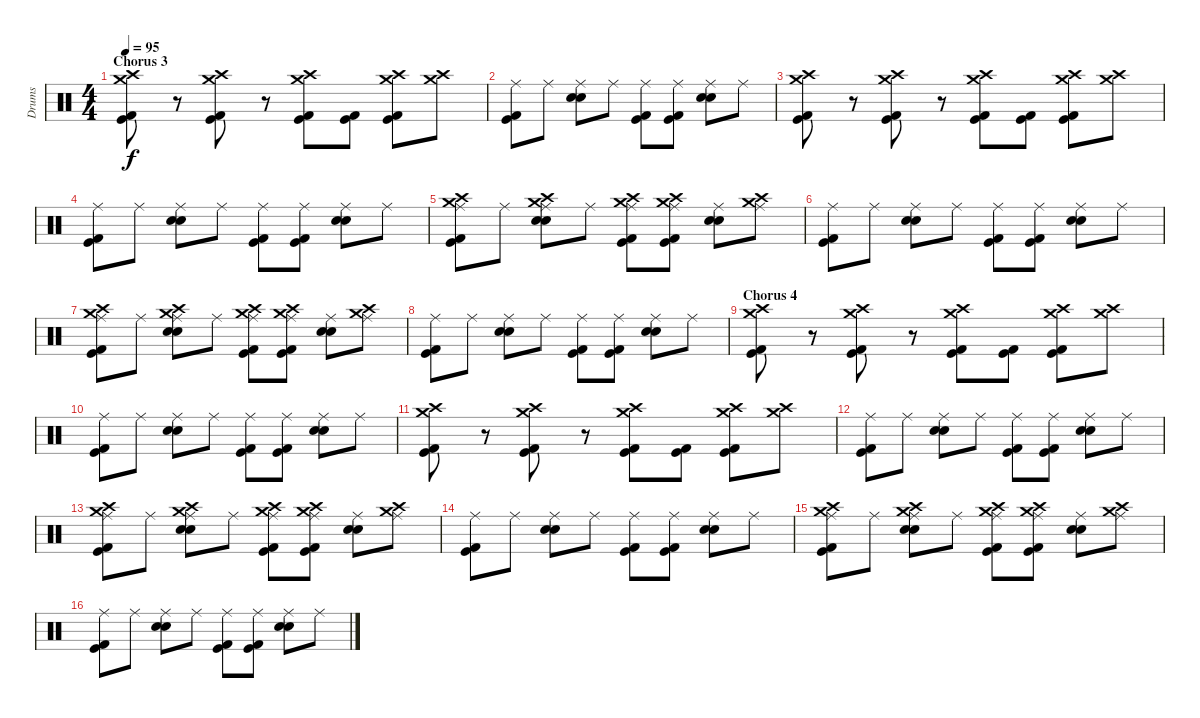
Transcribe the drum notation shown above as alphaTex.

\track ("Drums" "Drums") {instrument percussion}
\staff {score}
\articulation defaults
\ts (4 4)
\section ("" "Chorus 3")
\tempo 95
\clef neutral
\ks c
("Kick (hit) 2" "Kick (hit)" "Crash medium (hit)" "Crash high (hit)").8{dy f} r.8 ("Kick (hit) 2" "Kick (hit)" "Crash medium (hit)" "Crash high (hit)").8 r.8 ("Kick (hit) 2" "Kick (hit)" "Crash medium (hit)" "Crash high (hit)").8 ("Kick (hit) 2" "Kick (hit)").8 ("Kick (hit) 2" "Kick (hit)" "Crash medium (hit)" "Crash high (hit)").8 ("Crash medium (hit)" "Crash high (hit)").8 |
("Ride (middle)" "Kick (hit) 2" "Kick (hit)").8 "Ride (middle)".8 ("Ride (middle)" "Snare (hit) 2" "Electric Snare (hit)").8 "Ride (middle)".8 ("Ride (middle)" "Kick (hit) 2" "Kick (hit)").8 ("Ride (middle)" "Kick (hit) 2" "Kick (hit)").8 ("Ride (middle)" "Snare (hit) 2" "Electric Snare (hit)").8 "Ride (middle)".8 |
("Kick (hit) 2" "Kick (hit)" "Crash medium (hit)" "Crash high (hit)").8 r.8 ("Kick (hit) 2" "Kick (hit)" "Crash medium (hit)" "Crash high (hit)").8 r.8 ("Kick (hit) 2" "Kick (hit)" "Crash medium (hit)" "Crash high (hit)").8 ("Kick (hit) 2" "Kick (hit)").8 ("Kick (hit) 2" "Kick (hit)" "Crash medium (hit)" "Crash high (hit)").8 ("Crash medium (hit)" "Crash high (hit)").8 |
("Ride (middle)" "Kick (hit) 2" "Kick (hit)").8 "Ride (middle)".8 ("Ride (middle)" "Snare (hit) 2" "Electric Snare (hit)").8 "Ride (middle)".8 ("Ride (middle)" "Kick (hit) 2" "Kick (hit)").8 ("Ride (middle)" "Kick (hit) 2" "Kick (hit)").8 ("Ride (middle)" "Snare (hit) 2" "Electric Snare (hit)").8 "Ride (middle)".8 |
("Ride (middle)" "Kick (hit) 2" "Kick (hit)" "Crash medium (hit)" "Crash high (hit)").8 "Ride (middle)".8 ("Ride (middle)" "Snare (hit) 2" "Electric Snare (hit)" "Crash medium (hit)" "Crash high (hit)").8 "Ride (middle)".8 ("Ride (middle)" "Kick (hit) 2" "Kick (hit)" "Crash medium (hit)" "Crash high (hit)").8 ("Ride (middle)" "Kick (hit) 2" "Kick (hit)" "Crash medium (hit)" "Crash high (hit)").8 ("Ride (middle)" "Snare (hit) 2" "Electric Snare (hit)").8 ("Ride (middle)" "Crash high (hit)" "Crash medium (hit)").8 |
("Ride (middle)" "Kick (hit) 2" "Kick (hit)").8 "Ride (middle)".8 ("Ride (middle)" "Snare (hit) 2" "Electric Snare (hit)").8 "Ride (middle)".8 ("Ride (middle)" "Kick (hit) 2" "Kick (hit)").8 ("Ride (middle)" "Kick (hit) 2" "Kick (hit)").8 ("Ride (middle)" "Snare (hit) 2" "Electric Snare (hit)").8 "Ride (middle)".8 |
("Ride (middle)" "Kick (hit) 2" "Kick (hit)" "Crash medium (hit)" "Crash high (hit)").8 "Ride (middle)".8 ("Ride (middle)" "Snare (hit) 2" "Electric Snare (hit)" "Crash medium (hit)" "Crash high (hit)").8 "Ride (middle)".8 ("Ride (middle)" "Kick (hit) 2" "Kick (hit)" "Crash medium (hit)" "Crash high (hit)").8 ("Ride (middle)" "Kick (hit) 2" "Kick (hit)" "Crash medium (hit)" "Crash high (hit)").8 ("Ride (middle)" "Snare (hit) 2" "Electric Snare (hit)").8 ("Ride (middle)" "Crash high (hit)" "Crash medium (hit)").8 |
("Ride (middle)" "Kick (hit) 2" "Kick (hit)").8 "Ride (middle)".8 ("Ride (middle)" "Snare (hit) 2" "Electric Snare (hit)").8 "Ride (middle)".8 ("Ride (middle)" "Kick (hit) 2" "Kick (hit)").8 ("Ride (middle)" "Kick (hit) 2" "Kick (hit)").8 ("Ride (middle)" "Snare (hit) 2" "Electric Snare (hit)").8 "Ride (middle)".8 |
\section ("" "Chorus 4")
("Kick (hit) 2" "Kick (hit)" "Crash medium (hit)" "Crash high (hit)").8 r.8 ("Kick (hit) 2" "Kick (hit)" "Crash medium (hit)" "Crash high (hit)").8 r.8 ("Kick (hit) 2" "Kick (hit)" "Crash medium (hit)" "Crash high (hit)").8 ("Kick (hit) 2" "Kick (hit)").8 ("Kick (hit) 2" "Kick (hit)" "Crash medium (hit)" "Crash high (hit)").8 ("Crash medium (hit)" "Crash high (hit)").8 |
("Ride (middle)" "Kick (hit) 2" "Kick (hit)").8 "Ride (middle)".8 ("Ride (middle)" "Snare (hit) 2" "Electric Snare (hit)").8 "Ride (middle)".8 ("Ride (middle)" "Kick (hit) 2" "Kick (hit)").8 ("Ride (middle)" "Kick (hit) 2" "Kick (hit)").8 ("Ride (middle)" "Snare (hit) 2" "Electric Snare (hit)").8 "Ride (middle)".8 |
("Kick (hit) 2" "Kick (hit)" "Crash medium (hit)" "Crash high (hit)").8 r.8 ("Kick (hit) 2" "Kick (hit)" "Crash medium (hit)" "Crash high (hit)").8 r.8 ("Kick (hit) 2" "Kick (hit)" "Crash medium (hit)" "Crash high (hit)").8 ("Kick (hit) 2" "Kick (hit)").8 ("Kick (hit) 2" "Kick (hit)" "Crash medium (hit)" "Crash high (hit)").8 ("Crash medium (hit)" "Crash high (hit)").8 |
("Ride (middle)" "Kick (hit) 2" "Kick (hit)").8 "Ride (middle)".8 ("Ride (middle)" "Snare (hit) 2" "Electric Snare (hit)").8 "Ride (middle)".8 ("Ride (middle)" "Kick (hit) 2" "Kick (hit)").8 ("Ride (middle)" "Kick (hit) 2" "Kick (hit)").8 ("Ride (middle)" "Snare (hit) 2" "Electric Snare (hit)").8 "Ride (middle)".8 |
("Ride (middle)" "Kick (hit) 2" "Kick (hit)" "Crash medium (hit)" "Crash high (hit)").8 "Ride (middle)".8 ("Ride (middle)" "Snare (hit) 2" "Electric Snare (hit)" "Crash medium (hit)" "Crash high (hit)").8 "Ride (middle)".8 ("Ride (middle)" "Kick (hit) 2" "Kick (hit)" "Crash medium (hit)" "Crash high (hit)").8 ("Ride (middle)" "Kick (hit) 2" "Kick (hit)" "Crash medium (hit)" "Crash high (hit)").8 ("Ride (middle)" "Snare (hit) 2" "Electric Snare (hit)").8 ("Ride (middle)" "Crash high (hit)" "Crash medium (hit)").8 |
("Ride (middle)" "Kick (hit) 2" "Kick (hit)").8 "Ride (middle)".8 ("Ride (middle)" "Snare (hit) 2" "Electric Snare (hit)").8 "Ride (middle)".8 ("Ride (middle)" "Kick (hit) 2" "Kick (hit)").8 ("Ride (middle)" "Kick (hit) 2" "Kick (hit)").8 ("Ride (middle)" "Snare (hit) 2" "Electric Snare (hit)").8 "Ride (middle)".8 |
("Ride (middle)" "Kick (hit) 2" "Kick (hit)" "Crash medium (hit)" "Crash high (hit)").8 "Ride (middle)".8 ("Ride (middle)" "Snare (hit) 2" "Electric Snare (hit)" "Crash medium (hit)" "Crash high (hit)").8 "Ride (middle)".8 ("Ride (middle)" "Kick (hit) 2" "Kick (hit)" "Crash medium (hit)" "Crash high (hit)").8 ("Ride (middle)" "Kick (hit) 2" "Kick (hit)" "Crash medium (hit)" "Crash high (hit)").8 ("Ride (middle)" "Snare (hit) 2" "Electric Snare (hit)").8 ("Ride (middle)" "Crash high (hit)" "Crash medium (hit)").8 |
("Ride (middle)" "Kick (hit) 2" "Kick (hit)").8 "Ride (middle)".8 ("Ride (middle)" "Snare (hit) 2" "Electric Snare (hit)").8 "Ride (middle)".8 ("Ride (middle)" "Kick (hit) 2" "Kick (hit)").8 ("Ride (middle)" "Kick (hit) 2" "Kick (hit)").8 ("Ride (middle)" "Snare (hit) 2" "Electric Snare (hit)").8 "Ride (middle)".8
